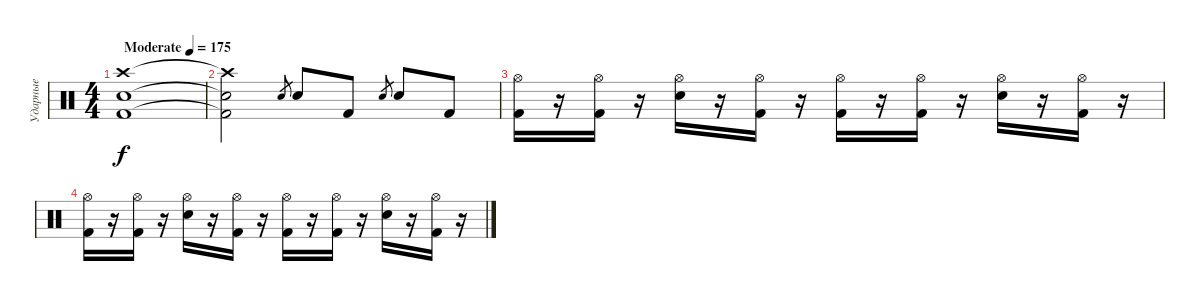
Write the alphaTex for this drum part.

\track ("Ударные" "Ударные") {instrument percussion}
\staff {score}
\articulation defaults
\ts (4 4)
\tempo (175 "Moderate")
\clef neutral
\ks c
("Crash high (hit)" "Kick (hit) 2" "Electric Snare (hit)").1{dy f} |
("Crash high (hit)"{t} "Kick (hit) 2"{t} "Electric Snare (hit)"{t}).2 "Electric Snare (hit)".8{gr} "Electric Snare (hit)".8 "Kick (hit) 2".8 "Electric Snare (hit)".8{gr} "Electric Snare (hit)".8 "Kick (hit) 2".8 |
("Kick (hit) 2" "Hi-Hat (open)").16 r.16 ("Kick (hit) 2" "Hi-Hat (open)").16 r.16 ("Electric Snare (hit)" "Hi-Hat (open)").16 r.16 ("Kick (hit) 2" "Hi-Hat (open)").16 r.16 ("Kick (hit) 2" "Hi-Hat (open)").16 r.16 ("Kick (hit) 2" "Hi-Hat (open)").16 r.16 ("Electric Snare (hit)" "Hi-Hat (open)").16 r.16 ("Kick (hit) 2" "Hi-Hat (open)").16 r.16 |
("Kick (hit) 2" "Hi-Hat (open)").16 r.16 ("Kick (hit) 2" "Hi-Hat (open)").16 r.16 ("Electric Snare (hit)" "Hi-Hat (open)").16 r.16 ("Kick (hit) 2" "Hi-Hat (open)").16 r.16 ("Kick (hit) 2" "Hi-Hat (open)").16 r.16 ("Kick (hit) 2" "Hi-Hat (open)").16 r.16 ("Electric Snare (hit)" "Hi-Hat (open)").16 r.16 ("Kick (hit) 2" "Hi-Hat (open)").16 r.16
